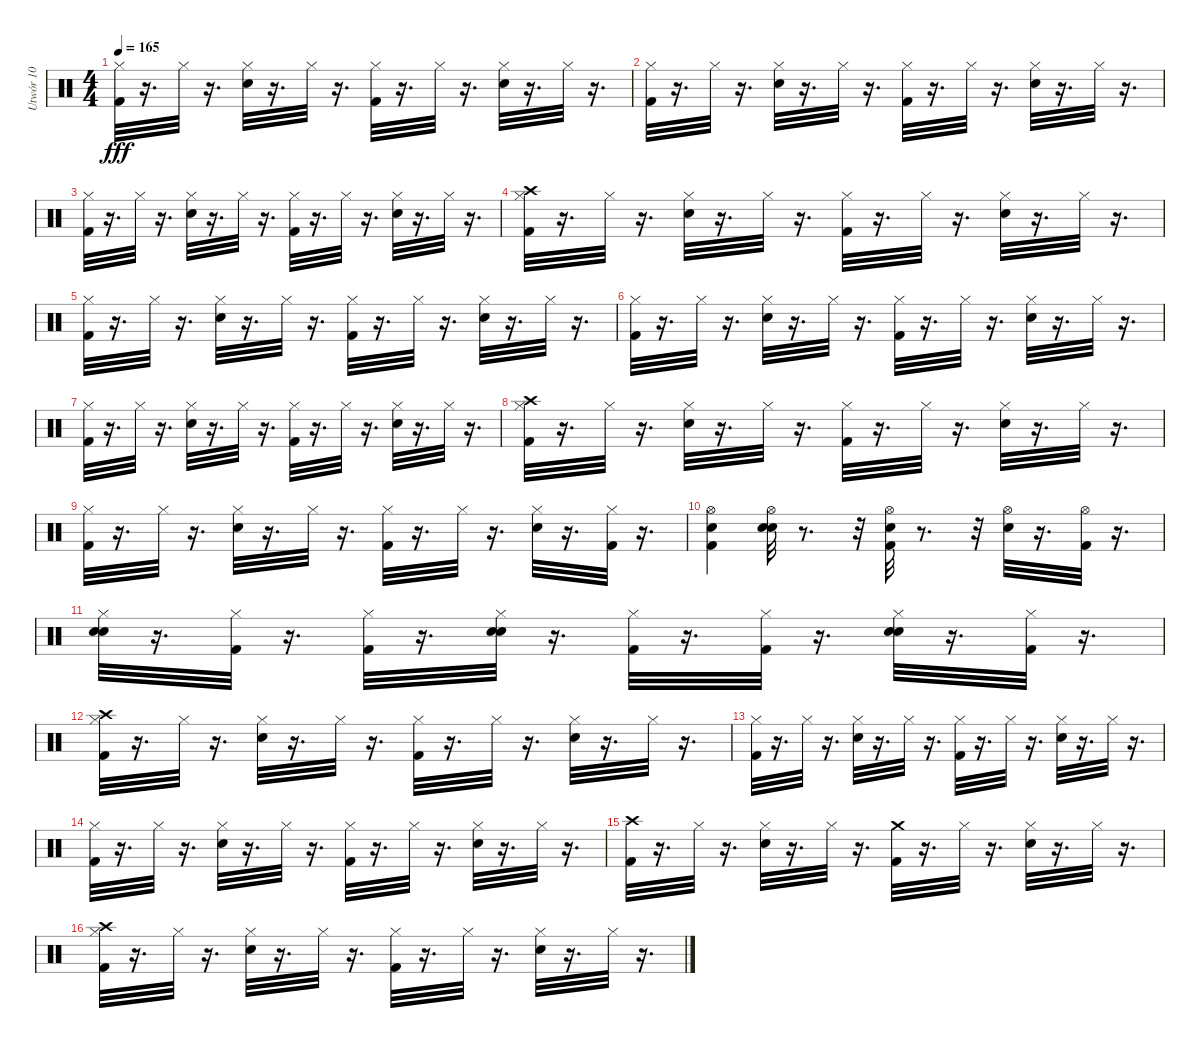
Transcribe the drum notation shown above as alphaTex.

\track ("Utwór 10" "Utwór 10") {instrument percussion}
\staff {score}
\articulation defaults
\ts (4 4)
\tempo 165
\clef neutral
\ks c
("Hi-Hat (closed)" "Kick (hit) 2").32{dy fff} r.16{d} "Hi-Hat (closed)".32 r.16{d} ("Hi-Hat (closed)" "Electric Snare (hit)").32 r.16{d} "Hi-Hat (closed)".32 r.16{d} ("Hi-Hat (closed)" "Kick (hit) 2").32 r.16{d} "Hi-Hat (closed)".32 r.16{d} ("Hi-Hat (closed)" "Electric Snare (hit)").32 r.16{d} "Hi-Hat (closed)".32 r.16{d} |
("Hi-Hat (closed)" "Kick (hit) 2").32 r.16{d} "Hi-Hat (closed)".32 r.16{d} ("Hi-Hat (closed)" "Electric Snare (hit)").32 r.16{d} "Hi-Hat (closed)".32 r.16{d} ("Hi-Hat (closed)" "Kick (hit) 2").32 r.16{d} "Hi-Hat (closed)".32 r.16{d} ("Hi-Hat (closed)" "Electric Snare (hit)").32 r.16{d} "Hi-Hat (closed)".32 r.16{d} |
("Hi-Hat (closed)" "Kick (hit) 2").32 r.16{d} "Hi-Hat (closed)".32 r.16{d} ("Hi-Hat (closed)" "Electric Snare (hit)").32 r.16{d} "Hi-Hat (closed)".32 r.16{d} ("Hi-Hat (closed)" "Kick (hit) 2").32 r.16{d} "Hi-Hat (closed)".32 r.16{d} ("Hi-Hat (closed)" "Electric Snare (hit)").32 r.16{d} "Hi-Hat (closed)".32 r.16{d} |
("Crash high (hit)" "Hi-Hat (closed)" "Kick (hit) 2").32 r.16{d} "Hi-Hat (closed)".32 r.16{d} ("Hi-Hat (closed)" "Electric Snare (hit)").32 r.16{d} "Hi-Hat (closed)".32 r.16{d} ("Hi-Hat (closed)" "Kick (hit) 2").32 r.16{d} "Hi-Hat (closed)".32 r.16{d} ("Hi-Hat (closed)" "Electric Snare (hit)").32 r.16{d} "Hi-Hat (closed)".32 r.16{d} |
("Hi-Hat (closed)" "Kick (hit) 2").32 r.16{d} "Hi-Hat (closed)".32 r.16{d} ("Hi-Hat (closed)" "Electric Snare (hit)").32 r.16{d} "Hi-Hat (closed)".32 r.16{d} ("Hi-Hat (closed)" "Kick (hit) 2").32 r.16{d} "Hi-Hat (closed)".32 r.16{d} ("Hi-Hat (closed)" "Electric Snare (hit)").32 r.16{d} "Hi-Hat (closed)".32 r.16{d} |
("Hi-Hat (closed)" "Kick (hit) 2").32 r.16{d} "Hi-Hat (closed)".32 r.16{d} ("Hi-Hat (closed)" "Electric Snare (hit)").32 r.16{d} "Hi-Hat (closed)".32 r.16{d} ("Hi-Hat (closed)" "Kick (hit) 2").32 r.16{d} "Hi-Hat (closed)".32 r.16{d} ("Hi-Hat (closed)" "Electric Snare (hit)").32 r.16{d} "Hi-Hat (closed)".32 r.16{d} |
("Hi-Hat (closed)" "Kick (hit) 2").32 r.16{d} "Hi-Hat (closed)".32 r.16{d} ("Hi-Hat (closed)" "Electric Snare (hit)").32 r.16{d} "Hi-Hat (closed)".32 r.16{d} ("Hi-Hat (closed)" "Kick (hit) 2").32 r.16{d} "Hi-Hat (closed)".32 r.16{d} ("Hi-Hat (closed)" "Electric Snare (hit)").32 r.16{d} "Hi-Hat (closed)".32 r.16{d} |
("Crash high (hit)" "Hi-Hat (closed)" "Kick (hit) 2").32 r.16{d} "Hi-Hat (closed)".32 r.16{d} ("Hi-Hat (closed)" "Electric Snare (hit)").32 r.16{d} "Hi-Hat (closed)".32 r.16{d} ("Hi-Hat (closed)" "Kick (hit) 2").32 r.16{d} "Hi-Hat (closed)".32 r.16{d} ("Hi-Hat (closed)" "Electric Snare (hit)").32 r.16{d} "Hi-Hat (closed)".32 r.16{d} |
("Hi-Hat (closed)" "Kick (hit) 2").32 r.16{d} "Hi-Hat (closed)".32 r.16{d} ("Hi-Hat (closed)" "Electric Snare (hit)").32 r.16{d} "Hi-Hat (closed)".32 r.16{d} ("Hi-Hat (closed)" "Kick (hit) 2").32 r.16{d} "Hi-Hat (closed)".32 r.16{d} ("Hi-Hat (closed)" "Electric Snare (hit)").32 r.16{d} ("Kick (hit) 2" "Hi-Hat (closed)").32 r.16{d} |
("Electric Snare (hit)" "Hi-Hat (open)" "Kick (hit) 2").4 ("Electric Snare (hit)" "Hi-Hat (open)" "Electric Snare (hit)").32 r.8{d} r.32 ("Electric Snare (hit)" "Hi-Hat (open)" "Kick (hit) 2").32 r.8{d} r.32 ("Hi-Hat (open)" "Electric Snare (hit)").32 r.16{d} ("Kick (hit) 2" "Hi-Hat (open)").32 r.16{d} |
("Electric Snare (hit)" "Hi-Hat (closed)" "Electric Snare (hit)").32 r.16{d} ("Kick (hit) 2" "Hi-Hat (closed)").32 r.16{d} ("Hi-Hat (closed)" "Kick (hit) 2").32 r.16{d} ("Electric Snare (hit)" "Electric Snare (hit)" "Hi-Hat (closed)").32 r.16{d} ("Hi-Hat (closed)" "Kick (hit) 2").32 r.16{d} ("Hi-Hat (closed)" "Kick (hit) 2").32 r.16{d} ("Electric Snare (hit)" "Hi-Hat (closed)" "Electric Snare (hit)").32 r.16{d} ("Kick (hit) 2" "Hi-Hat (closed)").32 r.16{d} |
("Kick (hit) 2" "Hi-Hat (closed)" "Crash high (hit)").32 r.16{d} "Hi-Hat (closed)".32 r.16{d} ("Hi-Hat (closed)" "Electric Snare (hit)").32 r.16{d} "Hi-Hat (closed)".32 r.16{d} ("Hi-Hat (closed)" "Kick (hit) 2").32 r.16{d} "Hi-Hat (closed)".32 r.16{d} ("Hi-Hat (closed)" "Electric Snare (hit)").32 r.16{d} "Hi-Hat (closed)".32 r.16{d} |
("Hi-Hat (closed)" "Kick (hit) 2").32 r.16{d} "Hi-Hat (closed)".32 r.16{d} ("Hi-Hat (closed)" "Electric Snare (hit)").32 r.16{d} "Hi-Hat (closed)".32 r.16{d} ("Hi-Hat (closed)" "Kick (hit) 2").32 r.16{d} "Hi-Hat (closed)".32 r.16{d} ("Hi-Hat (closed)" "Electric Snare (hit)").32 r.16{d} "Hi-Hat (closed)".32 r.16{d} |
("Hi-Hat (closed)" "Kick (hit) 2").32 r.16{d} "Hi-Hat (closed)".32 r.16{d} ("Hi-Hat (closed)" "Electric Snare (hit)").32 r.16{d} "Hi-Hat (closed)".32 r.16{d} ("Hi-Hat (closed)" "Kick (hit) 2").32 r.16{d} "Hi-Hat (closed)".32 r.16{d} ("Hi-Hat (closed)" "Electric Snare (hit)").32 r.16{d} "Hi-Hat (closed)".32 r.16{d} |
("Crash high (hit)" "Kick (hit) 2").32 r.16{d} "Hi-Hat (closed)".32 r.16{d} ("Hi-Hat (closed)" "Electric Snare (hit)").32 r.16{d} "Hi-Hat (closed)".32 r.16{d} ("Crash medium (hit)" "Kick (hit) 2").32 r.16{d} "Hi-Hat (closed)".32 r.16{d} ("Hi-Hat (closed)" "Electric Snare (hit)").32 r.16{d} "Hi-Hat (closed)".32 r.16{d} |
("Crash high (hit)" "Hi-Hat (closed)" "Kick (hit) 2").32 r.16{d} "Hi-Hat (closed)".32 r.16{d} ("Hi-Hat (closed)" "Electric Snare (hit)").32 r.16{d} "Hi-Hat (closed)".32 r.16{d} ("Hi-Hat (closed)" "Kick (hit) 2").32 r.16{d} "Hi-Hat (closed)".32 r.16{d} ("Hi-Hat (closed)" "Electric Snare (hit)").32 r.16{d} "Hi-Hat (closed)".32 r.16{d}
